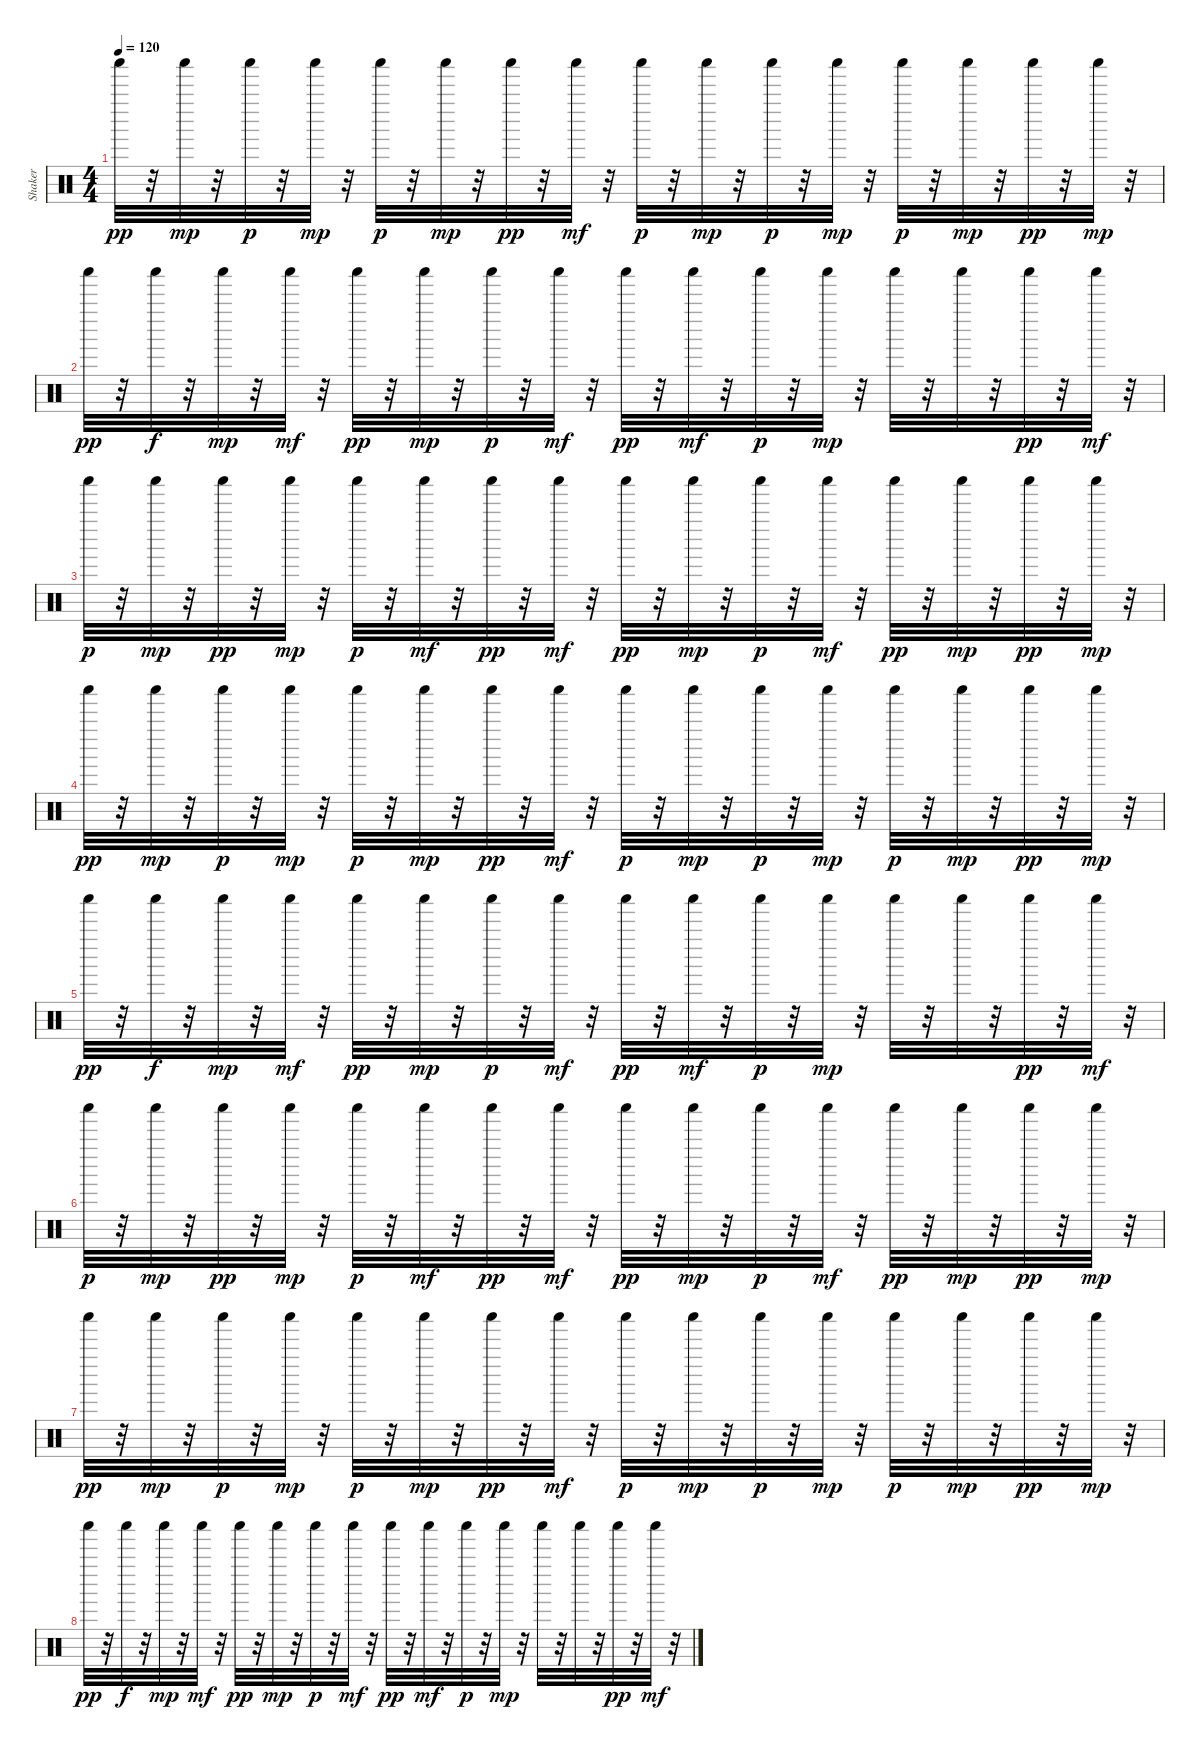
\track ("Shaker" "Shaker") {instrument percussion}
\staff {score}
\articulation defaults
\ts (4 4)
\tempo 120
\clef neutral
\ks c "Shaker (hit)".32{dy pp}
r.32 "Shaker (hit)".32{dy mp} r.32 "Shaker (hit)".32{dy p} r.32 "Shaker (hit)".32{dy mp} r.32 "Shaker (hit)".32{dy p} r.32 "Shaker (hit)".32{dy mp} r.32 "Shaker (hit)".32{dy pp} r.32 "Shaker (hit)".32{dy mf} r.32 "Shaker (hit)".32{dy p} r.32 "Shaker (hit)".32{dy mp} r.32 "Shaker (hit)".32{dy p} r.32 "Shaker (hit)".32{dy mp} r.32 "Shaker (hit)".32{dy p} r.32 "Shaker (hit)".32{dy mp} r.32 "Shaker (hit)".32{dy pp} r.32 "Shaker (hit)".32{dy mp} r.32 |
"Shaker (hit)".32{dy pp} r.32 "Shaker (hit)".32{dy f} r.32 "Shaker (hit)".32{dy mp} r.32 "Shaker (hit)".32{dy mf} r.32 "Shaker (hit)".32{dy pp} r.32 "Shaker (hit)".32{dy mp} r.32 "Shaker (hit)".32{dy p} r.32 "Shaker (hit)".32{dy mf} r.32 "Shaker (hit)".32{dy pp} r.32 "Shaker (hit)".32{dy mf} r.32 "Shaker (hit)".32{dy p} r.32 "Shaker (hit)".32{dy mp} r.32 "Shaker (hit)".32 r.32 "Shaker (hit)".32 r.32 "Shaker (hit)".32{dy pp} r.32 "Shaker (hit)".32{dy mf} r.32 |
"Shaker (hit)".32{dy p} r.32 "Shaker (hit)".32{dy mp} r.32 "Shaker (hit)".32{dy pp} r.32 "Shaker (hit)".32{dy mp} r.32 "Shaker (hit)".32{dy p} r.32 "Shaker (hit)".32{dy mf} r.32 "Shaker (hit)".32{dy pp} r.32 "Shaker (hit)".32{dy mf} r.32 "Shaker (hit)".32{dy pp} r.32 "Shaker (hit)".32{dy mp} r.32 "Shaker (hit)".32{dy p} r.32 "Shaker (hit)".32{dy mf} r.32 "Shaker (hit)".32{dy pp} r.32 "Shaker (hit)".32{dy mp} r.32 "Shaker (hit)".32{dy pp} r.32 "Shaker (hit)".32{dy mp} r.32 |
"Shaker (hit)".32{dy pp} r.32 "Shaker (hit)".32{dy mp} r.32 "Shaker (hit)".32{dy p} r.32 "Shaker (hit)".32{dy mp} r.32 "Shaker (hit)".32{dy p} r.32 "Shaker (hit)".32{dy mp} r.32 "Shaker (hit)".32{dy pp} r.32 "Shaker (hit)".32{dy mf} r.32 "Shaker (hit)".32{dy p} r.32 "Shaker (hit)".32{dy mp} r.32 "Shaker (hit)".32{dy p} r.32 "Shaker (hit)".32{dy mp} r.32 "Shaker (hit)".32{dy p} r.32 "Shaker (hit)".32{dy mp} r.32 "Shaker (hit)".32{dy pp} r.32 "Shaker (hit)".32{dy mp} r.32 |
"Shaker (hit)".32{dy pp} r.32 "Shaker (hit)".32{dy f} r.32 "Shaker (hit)".32{dy mp} r.32 "Shaker (hit)".32{dy mf} r.32 "Shaker (hit)".32{dy pp} r.32 "Shaker (hit)".32{dy mp} r.32 "Shaker (hit)".32{dy p} r.32 "Shaker (hit)".32{dy mf} r.32 "Shaker (hit)".32{dy pp} r.32 "Shaker (hit)".32{dy mf} r.32 "Shaker (hit)".32{dy p} r.32 "Shaker (hit)".32{dy mp} r.32 "Shaker (hit)".32 r.32 "Shaker (hit)".32 r.32 "Shaker (hit)".32{dy pp} r.32 "Shaker (hit)".32{dy mf} r.32 |
"Shaker (hit)".32{dy p} r.32 "Shaker (hit)".32{dy mp} r.32 "Shaker (hit)".32{dy pp} r.32 "Shaker (hit)".32{dy mp} r.32 "Shaker (hit)".32{dy p} r.32 "Shaker (hit)".32{dy mf} r.32 "Shaker (hit)".32{dy pp} r.32 "Shaker (hit)".32{dy mf} r.32 "Shaker (hit)".32{dy pp} r.32 "Shaker (hit)".32{dy mp} r.32 "Shaker (hit)".32{dy p} r.32 "Shaker (hit)".32{dy mf} r.32 "Shaker (hit)".32{dy pp} r.32 "Shaker (hit)".32{dy mp} r.32 "Shaker (hit)".32{dy pp} r.32 "Shaker (hit)".32{dy mp} r.32 |
"Shaker (hit)".32{dy pp} r.32 "Shaker (hit)".32{dy mp} r.32 "Shaker (hit)".32{dy p} r.32 "Shaker (hit)".32{dy mp} r.32 "Shaker (hit)".32{dy p} r.32 "Shaker (hit)".32{dy mp} r.32 "Shaker (hit)".32{dy pp} r.32 "Shaker (hit)".32{dy mf} r.32 "Shaker (hit)".32{dy p} r.32 "Shaker (hit)".32{dy mp} r.32 "Shaker (hit)".32{dy p} r.32 "Shaker (hit)".32{dy mp} r.32 "Shaker (hit)".32{dy p} r.32 "Shaker (hit)".32{dy mp} r.32 "Shaker (hit)".32{dy pp} r.32 "Shaker (hit)".32{dy mp} r.32 |
"Shaker (hit)".32{dy pp} r.32 "Shaker (hit)".32{dy f} r.32 "Shaker (hit)".32{dy mp} r.32 "Shaker (hit)".32{dy mf} r.32 "Shaker (hit)".32{dy pp} r.32 "Shaker (hit)".32{dy mp} r.32 "Shaker (hit)".32{dy p} r.32 "Shaker (hit)".32{dy mf} r.32 "Shaker (hit)".32{dy pp} r.32 "Shaker (hit)".32{dy mf} r.32 "Shaker (hit)".32{dy p} r.32 "Shaker (hit)".32{dy mp} r.32 "Shaker (hit)".32 r.32 "Shaker (hit)".32 r.32 "Shaker (hit)".32{dy pp} r.32 "Shaker (hit)".32{dy mf} r.32
